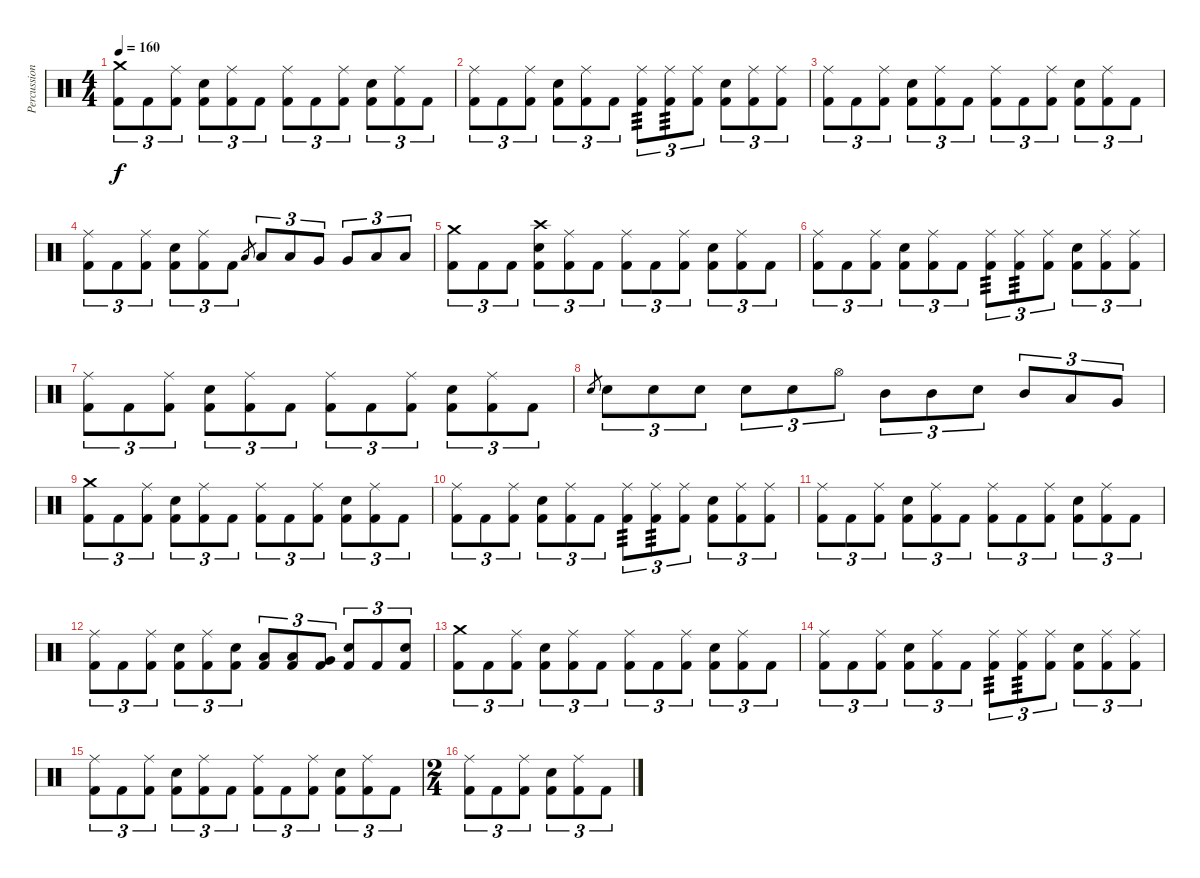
\track ("Percussion" "Percussion") {instrument percussion}
\staff {score}
\articulation defaults
\ts (4 4)
\tempo 160
\clef neutral
\ks c
("Crash medium (hit)" "Kick (hit) 2").8{tu (3 2) dy f} "Kick (hit) 2".8{tu (3 2)} ("Ride (middle)" "Kick (hit) 2").8{tu (3 2)} ("Kick (hit) 2" "Electric Snare (hit)").8{tu (3 2)} ("Ride (middle)" "Kick (hit) 2").8{tu (3 2)} "Kick (hit) 2".8{tu (3 2)} ("Ride (middle)" "Kick (hit) 2").8{tu (3 2)} "Kick (hit) 2".8{tu (3 2)} ("Ride (middle)" "Kick (hit) 2").8{tu (3 2)} ("Kick (hit) 2" "Electric Snare (hit)").8{tu (3 2)} ("Ride (middle)" "Kick (hit) 2").8{tu (3 2)} "Kick (hit) 2".8{tu (3 2)} |
("Ride (middle)" "Kick (hit) 2").8{tu (3 2)} "Kick (hit) 2".8{tu (3 2)} ("Ride (middle)" "Kick (hit) 2").8{tu (3 2)} ("Kick (hit) 2" "Electric Snare (hit)").8{tu (3 2)} ("Ride (middle)" "Kick (hit) 2").8{tu (3 2)} "Kick (hit) 2".8{tu (3 2)} ("Ride (middle)" "Kick (hit) 2").8{tu (3 2) tp 3} ("Ride (middle)" "Kick (hit) 2").8{tu (3 2) tp 3} ("Ride (middle)" "Kick (hit) 2").8{tu (3 2)} ("Kick (hit) 2" "Electric Snare (hit)").8{tu (3 2)} ("Ride (middle)" "Kick (hit) 2").8{tu (3 2)} ("Ride (middle)" "Kick (hit) 2").8{tu (3 2)} |
("Ride (middle)" "Kick (hit) 2").8{tu (3 2)} "Kick (hit) 2".8{tu (3 2)} ("Ride (middle)" "Kick (hit) 2").8{tu (3 2)} ("Kick (hit) 2" "Electric Snare (hit)").8{tu (3 2)} ("Ride (middle)" "Kick (hit) 2").8{tu (3 2)} "Kick (hit) 2".8{tu (3 2)} ("Ride (middle)" "Kick (hit) 2").8{tu (3 2)} "Kick (hit) 2".8{tu (3 2)} ("Ride (middle)" "Kick (hit) 2").8{tu (3 2)} ("Kick (hit) 2" "Electric Snare (hit)").8{tu (3 2)} ("Ride (middle)" "Kick (hit) 2").8{tu (3 2)} "Kick (hit) 2".8{tu (3 2)} |
("Ride (middle)" "Kick (hit) 2").8{tu (3 2)} "Kick (hit) 2".8{tu (3 2)} ("Ride (middle)" "Kick (hit) 2").8{tu (3 2)} ("Kick (hit) 2" "Electric Snare (hit)").8{tu (3 2)} ("Ride (middle)" "Kick (hit) 2").8{tu (3 2)} "Kick (hit) 2".8{tu (3 2)} "Low Tom (hit)".8{gr} "Low Tom (hit)".8{tu (3 2)} "Low Tom (hit)".8{tu (3 2)} "Very Low Tom (hit)".8{tu (3 2)} "Very Low Tom (hit)".8{tu (3 2)} "Low Floor Tom (hit)".8{tu (3 2)} "Low Floor Tom (hit)".8{tu (3 2)} |
("Crash medium (hit)" "Kick (hit) 2").8{tu (3 2)} "Kick (hit) 2".8{tu (3 2)} "Kick (hit) 2".8{tu (3 2)} ("Crash high (hit)" "Kick (hit) 2" "Electric Snare (hit)").8{tu (3 2)} ("Ride (middle)" "Kick (hit) 2").8{tu (3 2)} "Kick (hit) 2".8{tu (3 2)} ("Ride (middle)" "Kick (hit) 2").8{tu (3 2)} "Kick (hit) 2".8{tu (3 2)} ("Ride (middle)" "Kick (hit) 2").8{tu (3 2)} ("Kick (hit) 2" "Electric Snare (hit)").8{tu (3 2)} ("Ride (middle)" "Kick (hit) 2").8{tu (3 2)} "Kick (hit) 2".8{tu (3 2)} |
("Ride (middle)" "Kick (hit) 2").8{tu (3 2)} "Kick (hit) 2".8{tu (3 2)} ("Ride (middle)" "Kick (hit) 2").8{tu (3 2)} ("Kick (hit) 2" "Electric Snare (hit)").8{tu (3 2)} ("Ride (middle)" "Kick (hit) 2").8{tu (3 2)} "Kick (hit) 2".8{tu (3 2)} ("Ride (middle)" "Kick (hit) 2").8{tu (3 2) tp 3} ("Ride (middle)" "Kick (hit) 2").8{tu (3 2) tp 3} ("Ride (middle)" "Kick (hit) 2").8{tu (3 2)} ("Kick (hit) 2" "Electric Snare (hit)").8{tu (3 2)} ("Ride (middle)" "Kick (hit) 2").8{tu (3 2)} ("Ride (middle)" "Kick (hit) 2").8{tu (3 2)} |
("Ride (middle)" "Kick (hit) 2").8{tu (3 2)} "Kick (hit) 2".8{tu (3 2)} ("Ride (middle)" "Kick (hit) 2").8{tu (3 2)} ("Kick (hit) 2" "Electric Snare (hit)").8{tu (3 2)} ("Ride (middle)" "Kick (hit) 2").8{tu (3 2)} "Kick (hit) 2".8{tu (3 2)} ("Ride (middle)" "Kick (hit) 2").8{tu (3 2)} "Kick (hit) 2".8{tu (3 2)} ("Ride (middle)" "Kick (hit) 2").8{tu (3 2)} ("Kick (hit) 2" "Electric Snare (hit)").8{tu (3 2)} ("Ride (middle)" "Kick (hit) 2").8{tu (3 2)} "Kick (hit) 2".8{tu (3 2)} |
"Electric Snare (hit)".8{gr} "Electric Snare (hit)".8{tu (3 2)} "Electric Snare (hit)".8{tu (3 2)} "Electric Snare (hit)".8{tu (3 2)} "Electric Snare (hit)".8{tu (3 2)} "Electric Snare (hit)".8{tu (3 2)} "Hi-Hat (open)".8{tu (3 2)} "Mid Tom (hit)".8{tu (3 2)} "Mid Tom (hit)".8{tu (3 2)} "Electric Snare (hit)".8{tu (3 2)} "Mid Tom (hit)".8{tu (3 2)} "Low Tom (hit)".8{tu (3 2)} "Very Low Tom (hit)".8{tu (3 2)} |
("Crash medium (hit)" "Kick (hit) 2").8{tu (3 2)} "Kick (hit) 2".8{tu (3 2)} ("Ride (middle)" "Kick (hit) 2").8{tu (3 2)} ("Kick (hit) 2" "Electric Snare (hit)").8{tu (3 2)} ("Ride (middle)" "Kick (hit) 2").8{tu (3 2)} "Kick (hit) 2".8{tu (3 2)} ("Ride (middle)" "Kick (hit) 2").8{tu (3 2)} "Kick (hit) 2".8{tu (3 2)} ("Ride (middle)" "Kick (hit) 2").8{tu (3 2)} ("Kick (hit) 2" "Electric Snare (hit)").8{tu (3 2)} ("Ride (middle)" "Kick (hit) 2").8{tu (3 2)} "Kick (hit) 2".8{tu (3 2)} |
("Ride (middle)" "Kick (hit) 2").8{tu (3 2)} "Kick (hit) 2".8{tu (3 2)} ("Ride (middle)" "Kick (hit) 2").8{tu (3 2)} ("Kick (hit) 2" "Electric Snare (hit)").8{tu (3 2)} ("Ride (middle)" "Kick (hit) 2").8{tu (3 2)} "Kick (hit) 2".8{tu (3 2)} ("Ride (middle)" "Kick (hit) 2").8{tu (3 2) tp 3} ("Ride (middle)" "Kick (hit) 2").8{tu (3 2) tp 3} ("Ride (middle)" "Kick (hit) 2").8{tu (3 2)} ("Kick (hit) 2" "Electric Snare (hit)").8{tu (3 2)} ("Ride (middle)" "Kick (hit) 2").8{tu (3 2)} ("Ride (middle)" "Kick (hit) 2").8{tu (3 2)} |
("Ride (middle)" "Kick (hit) 2").8{tu (3 2)} "Kick (hit) 2".8{tu (3 2)} ("Ride (middle)" "Kick (hit) 2").8{tu (3 2)} ("Kick (hit) 2" "Electric Snare (hit)").8{tu (3 2)} ("Ride (middle)" "Kick (hit) 2").8{tu (3 2)} "Kick (hit) 2".8{tu (3 2)} ("Ride (middle)" "Kick (hit) 2").8{tu (3 2)} "Kick (hit) 2".8{tu (3 2)} ("Ride (middle)" "Kick (hit) 2").8{tu (3 2)} ("Kick (hit) 2" "Electric Snare (hit)").8{tu (3 2)} ("Ride (middle)" "Kick (hit) 2").8{tu (3 2)} "Kick (hit) 2".8{tu (3 2)} |
("Ride (middle)" "Kick (hit) 2").8{tu (3 2)} "Kick (hit) 2".8{tu (3 2)} ("Ride (middle)" "Kick (hit) 2").8{tu (3 2)} ("Kick (hit) 2" "Electric Snare (hit)").8{tu (3 2)} ("Ride (middle)" "Kick (hit) 2").8{tu (3 2)} ("Kick (hit) 2" "Electric Snare (hit)").8{tu (3 2)} ("Low Tom (hit)" "Kick (hit) 2").8{tu (3 2)} ("Low Tom (hit)" "Kick (hit) 2").8{tu (3 2)} ("Very Low Tom (hit)" "Kick (hit) 2").8{tu (3 2)} ("Kick (hit) 2" "Electric Snare (hit)").8{tu (3 2)} "Kick (hit) 2".8{tu (3 2)} ("Kick (hit) 2" "Electric Snare (hit)").8{tu (3 2)} |
("Crash medium (hit)" "Kick (hit) 2").8{tu (3 2)} "Kick (hit) 2".8{tu (3 2)} ("Ride (middle)" "Kick (hit) 2").8{tu (3 2)} ("Kick (hit) 2" "Electric Snare (hit)").8{tu (3 2)} ("Ride (middle)" "Kick (hit) 2").8{tu (3 2)} "Kick (hit) 2".8{tu (3 2)} ("Ride (middle)" "Kick (hit) 2").8{tu (3 2)} "Kick (hit) 2".8{tu (3 2)} ("Ride (middle)" "Kick (hit) 2").8{tu (3 2)} ("Kick (hit) 2" "Electric Snare (hit)").8{tu (3 2)} ("Ride (middle)" "Kick (hit) 2").8{tu (3 2)} "Kick (hit) 2".8{tu (3 2)} |
("Ride (middle)" "Kick (hit) 2").8{tu (3 2)} "Kick (hit) 2".8{tu (3 2)} ("Ride (middle)" "Kick (hit) 2").8{tu (3 2)} ("Kick (hit) 2" "Electric Snare (hit)").8{tu (3 2)} ("Ride (middle)" "Kick (hit) 2").8{tu (3 2)} "Kick (hit) 2".8{tu (3 2)} ("Ride (middle)" "Kick (hit) 2").8{tu (3 2) tp 3} ("Ride (middle)" "Kick (hit) 2").8{tu (3 2) tp 3} ("Ride (middle)" "Kick (hit) 2").8{tu (3 2)} ("Kick (hit) 2" "Electric Snare (hit)").8{tu (3 2)} ("Ride (middle)" "Kick (hit) 2").8{tu (3 2)} ("Ride (middle)" "Kick (hit) 2").8{tu (3 2)} |
("Ride (middle)" "Kick (hit) 2").8{tu (3 2)} "Kick (hit) 2".8{tu (3 2)} ("Ride (middle)" "Kick (hit) 2").8{tu (3 2)} ("Kick (hit) 2" "Electric Snare (hit)").8{tu (3 2)} ("Ride (middle)" "Kick (hit) 2").8{tu (3 2)} "Kick (hit) 2".8{tu (3 2)} ("Ride (middle)" "Kick (hit) 2").8{tu (3 2)} "Kick (hit) 2".8{tu (3 2)} ("Ride (middle)" "Kick (hit) 2").8{tu (3 2)} ("Kick (hit) 2" "Electric Snare (hit)").8{tu (3 2)} ("Ride (middle)" "Kick (hit) 2").8{tu (3 2)} "Kick (hit) 2".8{tu (3 2)} |
\ts (2 4)
("Ride (middle)" "Kick (hit) 2").8{tu (3 2)} "Kick (hit) 2".8{tu (3 2)} ("Ride (middle)" "Kick (hit) 2").8{tu (3 2)} ("Kick (hit) 2" "Electric Snare (hit)").8{tu (3 2)} ("Ride (middle)" "Kick (hit) 2").8{tu (3 2)} "Kick (hit) 2".8{tu (3 2)}
